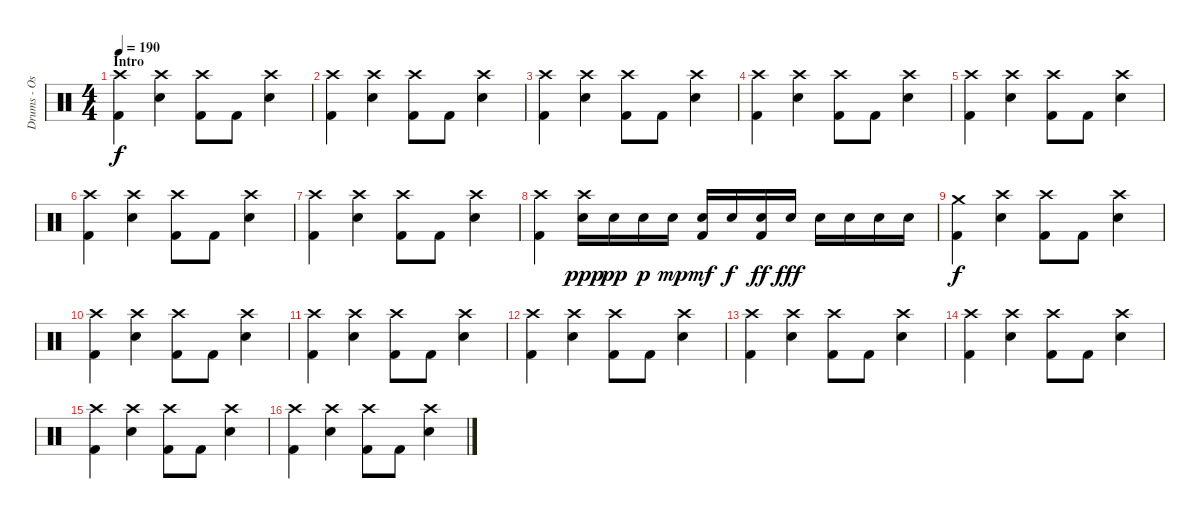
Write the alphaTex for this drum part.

\track ("Drums - Oskar Karlsson" "Drums - Os") {instrument percussion}
\staff {score}
\articulation defaults
\ts (4 4)
\section ("" "Intro")
\tempo 190
\clef neutral
\ks c
("Crash high (hit)" "Kick (hit) 2").4{dy f} ("Crash high (hit)" "Electric Snare (hit)").4 ("Crash high (hit)" "Kick (hit) 2").8 "Kick (hit) 2".8 ("Crash high (hit)" "Electric Snare (hit)").4 |
("Crash high (hit)" "Kick (hit) 2").4 ("Crash high (hit)" "Electric Snare (hit)").4 ("Crash high (hit)" "Kick (hit) 2").8 "Kick (hit) 2".8 ("Crash high (hit)" "Electric Snare (hit)").4 |
("Crash high (hit)" "Kick (hit) 2").4 ("Crash high (hit)" "Electric Snare (hit)").4 ("Crash high (hit)" "Kick (hit) 2").8 "Kick (hit) 2".8 ("Crash high (hit)" "Electric Snare (hit)").4 |
("Crash high (hit)" "Kick (hit) 2").4 ("Crash high (hit)" "Electric Snare (hit)").4 ("Crash high (hit)" "Kick (hit) 2").8 "Kick (hit) 2".8 ("Crash high (hit)" "Electric Snare (hit)").4 |
("Crash high (hit)" "Kick (hit) 2").4 ("Crash high (hit)" "Electric Snare (hit)").4 ("Crash high (hit)" "Kick (hit) 2").8 "Kick (hit) 2".8 ("Crash high (hit)" "Electric Snare (hit)").4 |
("Crash high (hit)" "Kick (hit) 2").4 ("Crash high (hit)" "Electric Snare (hit)").4 ("Crash high (hit)" "Kick (hit) 2").8 "Kick (hit) 2".8 ("Crash high (hit)" "Electric Snare (hit)").4 |
("Crash high (hit)" "Kick (hit) 2").4 ("Crash high (hit)" "Electric Snare (hit)").4 ("Crash high (hit)" "Kick (hit) 2").8 "Kick (hit) 2".8 ("Crash high (hit)" "Electric Snare (hit)").4 |
("Crash high (hit)" "Kick (hit) 2").4 ("Crash high (hit)" "Electric Snare (hit)").16{dy ppp} "Electric Snare (hit)".16{dy pp} "Electric Snare (hit)".16{dy p} "Electric Snare (hit)".16{dy mp} ("Electric Snare (hit)" "Kick (hit) 2").16{dy mf} "Electric Snare (hit)".16{dy f} ("Electric Snare (hit)" "Kick (hit) 2").16{dy ff} "Electric Snare (hit)".16{dy fff} "Electric Snare (hit)".16 "Electric Snare (hit)".16 "Electric Snare (hit)".16 "Electric Snare (hit)".16 |
("Crash medium (hit)" "Kick (hit) 2").4{dy f} ("Crash high (hit)" "Electric Snare (hit)").4 ("Crash high (hit)" "Kick (hit) 2").8 "Kick (hit) 2".8 ("Crash high (hit)" "Electric Snare (hit)").4 |
("Crash high (hit)" "Kick (hit) 2").4 ("Crash high (hit)" "Electric Snare (hit)").4 ("Crash high (hit)" "Kick (hit) 2").8 "Kick (hit) 2".8 ("Crash high (hit)" "Electric Snare (hit)").4 |
("Crash high (hit)" "Kick (hit) 2").4 ("Crash high (hit)" "Electric Snare (hit)").4 ("Crash high (hit)" "Kick (hit) 2").8 "Kick (hit) 2".8 ("Crash high (hit)" "Electric Snare (hit)").4 |
("Crash high (hit)" "Kick (hit) 2").4 ("Crash high (hit)" "Electric Snare (hit)").4 ("Crash high (hit)" "Kick (hit) 2").8 "Kick (hit) 2".8 ("Crash high (hit)" "Electric Snare (hit)").4 |
("Crash high (hit)" "Kick (hit) 2").4 ("Crash high (hit)" "Electric Snare (hit)").4 ("Crash high (hit)" "Kick (hit) 2").8 "Kick (hit) 2".8 ("Crash high (hit)" "Electric Snare (hit)").4 |
("Crash high (hit)" "Kick (hit) 2").4 ("Crash high (hit)" "Electric Snare (hit)").4 ("Crash high (hit)" "Kick (hit) 2").8 "Kick (hit) 2".8 ("Crash high (hit)" "Electric Snare (hit)").4 |
("Crash high (hit)" "Kick (hit) 2").4 ("Crash high (hit)" "Electric Snare (hit)").4 ("Crash high (hit)" "Kick (hit) 2").8 "Kick (hit) 2".8 ("Crash high (hit)" "Electric Snare (hit)").4 |
("Crash high (hit)" "Kick (hit) 2").4 ("Crash high (hit)" "Electric Snare (hit)").4 ("Crash high (hit)" "Kick (hit) 2").8 "Kick (hit) 2".8 ("Crash high (hit)" "Electric Snare (hit)").4
